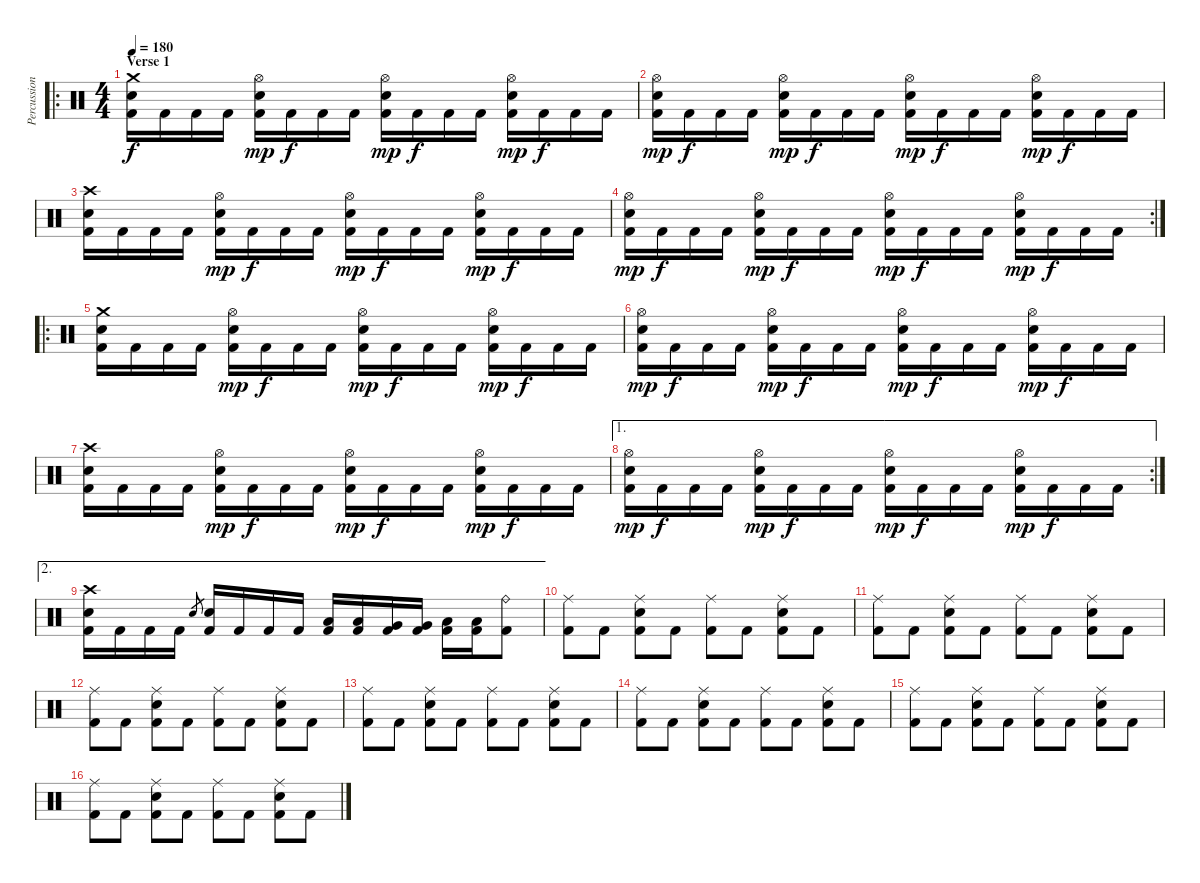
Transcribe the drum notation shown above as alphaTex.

\track ("Percussion" "Percussion") {instrument percussion}
\staff {score}
\articulation defaults
\ro
\ts (4 4)
\section ("" "Verse 1")
\tempo 180
\clef neutral
\ks c
("Crash medium (hit)" "Electric Snare (hit)" "Kick (hit) 2").16{dy f} "Kick (hit) 2".16 "Kick (hit) 2".16 "Kick (hit) 2".16 ("Hi-Hat (open)" "Electric Snare (hit)" "Kick (hit) 2").16{dy mp} "Kick (hit) 2".16{dy f} "Kick (hit) 2".16 "Kick (hit) 2".16 ("Hi-Hat (open)" "Electric Snare (hit)" "Kick (hit) 2").16{dy mp} "Kick (hit) 2".16{dy f} "Kick (hit) 2".16 "Kick (hit) 2".16 ("Hi-Hat (open)" "Electric Snare (hit)" "Kick (hit) 2").16{dy mp} "Kick (hit) 2".16{dy f} "Kick (hit) 2".16 "Kick (hit) 2".16 |
("Hi-Hat (open)" "Electric Snare (hit)" "Kick (hit) 2").16{dy mp} "Kick (hit) 2".16{dy f} "Kick (hit) 2".16 "Kick (hit) 2".16 ("Hi-Hat (open)" "Electric Snare (hit)" "Kick (hit) 2").16{dy mp} "Kick (hit) 2".16{dy f} "Kick (hit) 2".16 "Kick (hit) 2".16 ("Hi-Hat (open)" "Electric Snare (hit)" "Kick (hit) 2").16{dy mp} "Kick (hit) 2".16{dy f} "Kick (hit) 2".16 "Kick (hit) 2".16 ("Hi-Hat (open)" "Electric Snare (hit)" "Kick (hit) 2").16{dy mp} "Kick (hit) 2".16{dy f} "Kick (hit) 2".16 "Kick (hit) 2".16 |
("Crash high (hit)" "Electric Snare (hit)" "Kick (hit) 2").16 "Kick (hit) 2".16 "Kick (hit) 2".16 "Kick (hit) 2".16 ("Hi-Hat (open)" "Electric Snare (hit)" "Kick (hit) 2").16{dy mp} "Kick (hit) 2".16{dy f} "Kick (hit) 2".16 "Kick (hit) 2".16 ("Hi-Hat (open)" "Electric Snare (hit)" "Kick (hit) 2").16{dy mp} "Kick (hit) 2".16{dy f} "Kick (hit) 2".16 "Kick (hit) 2".16 ("Hi-Hat (open)" "Electric Snare (hit)" "Kick (hit) 2").16{dy mp} "Kick (hit) 2".16{dy f} "Kick (hit) 2".16 "Kick (hit) 2".16 |
\rc 2
("Hi-Hat (open)" "Electric Snare (hit)" "Kick (hit) 2").16{dy mp} "Kick (hit) 2".16{dy f} "Kick (hit) 2".16 "Kick (hit) 2".16 ("Hi-Hat (open)" "Electric Snare (hit)" "Kick (hit) 2").16{dy mp} "Kick (hit) 2".16{dy f} "Kick (hit) 2".16 "Kick (hit) 2".16 ("Hi-Hat (open)" "Electric Snare (hit)" "Kick (hit) 2").16{dy mp} "Kick (hit) 2".16{dy f} "Kick (hit) 2".16 "Kick (hit) 2".16 ("Hi-Hat (open)" "Electric Snare (hit)" "Kick (hit) 2").16{dy mp} "Kick (hit) 2".16{dy f} "Kick (hit) 2".16 "Kick (hit) 2".16 |
\ro
("Crash medium (hit)" "Electric Snare (hit)" "Kick (hit) 2").16 "Kick (hit) 2".16 "Kick (hit) 2".16 "Kick (hit) 2".16 ("Hi-Hat (open)" "Electric Snare (hit)" "Kick (hit) 2").16{dy mp} "Kick (hit) 2".16{dy f} "Kick (hit) 2".16 "Kick (hit) 2".16 ("Hi-Hat (open)" "Electric Snare (hit)" "Kick (hit) 2").16{dy mp} "Kick (hit) 2".16{dy f} "Kick (hit) 2".16 "Kick (hit) 2".16 ("Hi-Hat (open)" "Electric Snare (hit)" "Kick (hit) 2").16{dy mp} "Kick (hit) 2".16{dy f} "Kick (hit) 2".16 "Kick (hit) 2".16 |
("Hi-Hat (open)" "Electric Snare (hit)" "Kick (hit) 2").16{dy mp} "Kick (hit) 2".16{dy f} "Kick (hit) 2".16 "Kick (hit) 2".16 ("Hi-Hat (open)" "Electric Snare (hit)" "Kick (hit) 2").16{dy mp} "Kick (hit) 2".16{dy f} "Kick (hit) 2".16 "Kick (hit) 2".16 ("Hi-Hat (open)" "Electric Snare (hit)" "Kick (hit) 2").16{dy mp} "Kick (hit) 2".16{dy f} "Kick (hit) 2".16 "Kick (hit) 2".16 ("Hi-Hat (open)" "Electric Snare (hit)" "Kick (hit) 2").16{dy mp} "Kick (hit) 2".16{dy f} "Kick (hit) 2".16 "Kick (hit) 2".16 |
("Crash high (hit)" "Electric Snare (hit)" "Kick (hit) 2").16 "Kick (hit) 2".16 "Kick (hit) 2".16 "Kick (hit) 2".16 ("Hi-Hat (open)" "Electric Snare (hit)" "Kick (hit) 2").16{dy mp} "Kick (hit) 2".16{dy f} "Kick (hit) 2".16 "Kick (hit) 2".16 ("Hi-Hat (open)" "Electric Snare (hit)" "Kick (hit) 2").16{dy mp} "Kick (hit) 2".16{dy f} "Kick (hit) 2".16 "Kick (hit) 2".16 ("Hi-Hat (open)" "Electric Snare (hit)" "Kick (hit) 2").16{dy mp} "Kick (hit) 2".16{dy f} "Kick (hit) 2".16 "Kick (hit) 2".16 |
\ae 1
\rc 2
("Hi-Hat (open)" "Electric Snare (hit)" "Kick (hit) 2").16{dy mp} "Kick (hit) 2".16{dy f} "Kick (hit) 2".16 "Kick (hit) 2".16 ("Hi-Hat (open)" "Electric Snare (hit)" "Kick (hit) 2").16{dy mp} "Kick (hit) 2".16{dy f} "Kick (hit) 2".16 "Kick (hit) 2".16 ("Hi-Hat (open)" "Electric Snare (hit)" "Kick (hit) 2").16{dy mp} "Kick (hit) 2".16{dy f} "Kick (hit) 2".16 "Kick (hit) 2".16 ("Hi-Hat (open)" "Electric Snare (hit)" "Kick (hit) 2").16{dy mp} "Kick (hit) 2".16{dy f} "Kick (hit) 2".16 "Kick (hit) 2".16 |
\ae 2
("Crash high (hit)" "Electric Snare (hit)" "Kick (hit) 2").16 "Kick (hit) 2".16 "Kick (hit) 2".16 "Kick (hit) 2".16 "Electric Snare (hit)".8{gr} ("Electric Snare (hit)" "Kick (hit) 2").16 "Kick (hit) 2".16 "Kick (hit) 2".16 "Kick (hit) 2".16 ("Low Tom (hit)" "Kick (hit) 2").16 ("Low Tom (hit)" "Kick (hit) 2").16 ("Very Low Tom (hit)" "Kick (hit) 2").16 ("Very Low Tom (hit)" "Kick (hit) 2").16 ("Low Floor Tom (hit)" "Kick (hit) 2").16 ("Low Floor Tom (hit)" "Kick (hit) 2").16 ("Ride (bell)" "Kick (hit) 2").8 |
("Ride (middle)" "Kick (hit) 2").8 "Kick (hit) 2".8 ("Ride (middle)" "Electric Snare (hit)" "Kick (hit) 2").8 "Kick (hit) 2".8 ("Ride (middle)" "Kick (hit) 2").8 "Kick (hit) 2".8 ("Ride (middle)" "Electric Snare (hit)" "Kick (hit) 2").8 "Kick (hit) 2".8 |
("Ride (middle)" "Kick (hit) 2").8 "Kick (hit) 2".8 ("Ride (middle)" "Electric Snare (hit)" "Kick (hit) 2").8 "Kick (hit) 2".8 ("Ride (middle)" "Kick (hit) 2").8 "Kick (hit) 2".8 ("Ride (middle)" "Electric Snare (hit)" "Kick (hit) 2").8 "Kick (hit) 2".8 |
("Ride (middle)" "Kick (hit) 2").8 "Kick (hit) 2".8 ("Ride (middle)" "Electric Snare (hit)" "Kick (hit) 2").8 "Kick (hit) 2".8 ("Ride (middle)" "Kick (hit) 2").8 "Kick (hit) 2".8 ("Ride (middle)" "Electric Snare (hit)" "Kick (hit) 2").8 "Kick (hit) 2".8 |
("Ride (middle)" "Kick (hit) 2").8 "Kick (hit) 2".8 ("Ride (middle)" "Electric Snare (hit)" "Kick (hit) 2").8 "Kick (hit) 2".8 ("Ride (middle)" "Kick (hit) 2").8 "Kick (hit) 2".8 ("Ride (middle)" "Electric Snare (hit)" "Kick (hit) 2").8 "Kick (hit) 2".8 |
("Ride (middle)" "Kick (hit) 2").8 "Kick (hit) 2".8 ("Ride (middle)" "Electric Snare (hit)" "Kick (hit) 2").8 "Kick (hit) 2".8 ("Ride (middle)" "Kick (hit) 2").8 "Kick (hit) 2".8 ("Ride (middle)" "Electric Snare (hit)" "Kick (hit) 2").8 "Kick (hit) 2".8 |
("Ride (middle)" "Kick (hit) 2").8 "Kick (hit) 2".8 ("Ride (middle)" "Electric Snare (hit)" "Kick (hit) 2").8 "Kick (hit) 2".8 ("Ride (middle)" "Kick (hit) 2").8 "Kick (hit) 2".8 ("Ride (middle)" "Electric Snare (hit)" "Kick (hit) 2").8 "Kick (hit) 2".8 |
("Ride (middle)" "Kick (hit) 2").8 "Kick (hit) 2".8 ("Ride (middle)" "Electric Snare (hit)" "Kick (hit) 2").8 "Kick (hit) 2".8 ("Ride (middle)" "Kick (hit) 2").8 "Kick (hit) 2".8 ("Ride (middle)" "Electric Snare (hit)" "Kick (hit) 2").8 "Kick (hit) 2".8
